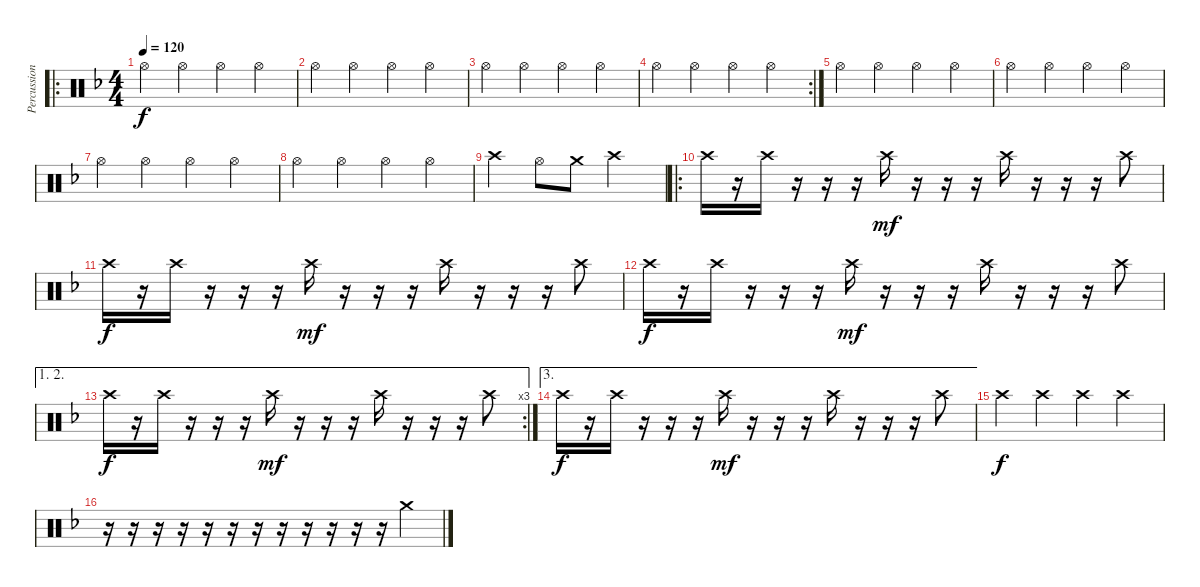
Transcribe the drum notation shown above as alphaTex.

\track ("Percussion" "Percussion") {instrument percussion}
\staff {score}
\articulation defaults
\ro
\ts (4 4)
\tempo 120
\clef neutral
\ks f "Hi-Hat (open)".4{dy f} "Hi-Hat (open)".4 "Hi-Hat (open)".4 "Hi-Hat (open)".4
|
"Hi-Hat (open)".4 "Hi-Hat (open)".4 "Hi-Hat (open)".4 "Hi-Hat (open)".4 |
"Hi-Hat (open)".4 "Hi-Hat (open)".4 "Hi-Hat (open)".4 "Hi-Hat (open)".4 |
\rc 2 "Hi-Hat (open)".4 "Hi-Hat (open)".4 "Hi-Hat (open)".4 "Hi-Hat (open)".4
|
"Hi-Hat (open)".4 "Hi-Hat (open)".4 "Hi-Hat (open)".4 "Hi-Hat (open)".4 |
"Hi-Hat (open)".4 "Hi-Hat (open)".4 "Hi-Hat (open)".4 "Hi-Hat (open)".4 |
"Hi-Hat (open)".4 "Hi-Hat (open)".4 "Hi-Hat (open)".4 "Hi-Hat (open)".4 |
"Hi-Hat (open)".4 "Hi-Hat (open)".4 "Hi-Hat (open)".4 "Hi-Hat (open)".4 |
"Crash high (hit)".4 "Hi-Hat (open)".8 "Crash medium (hit)".8 "Crash high (hit)".2 |
\ro "Crash high (hit)".16
r.16 "Crash high (hit)".16 r.16 r.16 r.16 "Crash high (hit)".16{dy mf} r.16 r.16 r.16 "Crash high (hit)".16 r.16 r.16 r.16 "Crash high (hit)".8 |
"Crash high (hit)".16{dy f} r.16 "Crash high (hit)".16 r.16 r.16 r.16 "Crash high (hit)".16{dy mf} r.16 r.16 r.16 "Crash high (hit)".16 r.16 r.16 r.16 "Crash high (hit)".8 |
"Crash high (hit)".16{dy f} r.16 "Crash high (hit)".16 r.16 r.16 r.16 "Crash high (hit)".16{dy mf} r.16 r.16 r.16 "Crash high (hit)".16 r.16 r.16 r.16 "Crash high (hit)".8 |
\ae (1 2)
\rc 3 "Crash high (hit)".16{dy f}
r.16 "Crash high (hit)".16 r.16 r.16 r.16 "Crash high (hit)".16{dy mf} r.16 r.16 r.16 "Crash high (hit)".16 r.16 r.16 r.16 "Crash high (hit)".8 |
\ae 3 "Crash high (hit)".16{dy f}
r.16 "Crash high (hit)".16 r.16 r.16 r.16 "Crash high (hit)".16{dy mf} r.16 r.16 r.16 "Crash high (hit)".16 r.16 r.16 r.16 "Crash high (hit)".8 |
"Crash high (hit)".4{dy f} "Crash high (hit)".4 "Crash high (hit)".4 "Crash high (hit)".4 |
r.16 r.16 r.16 r.16 r.16 r.16 r.16 r.16 r.16 r.16 r.16 r.16 "Crash medium (hit)".4
